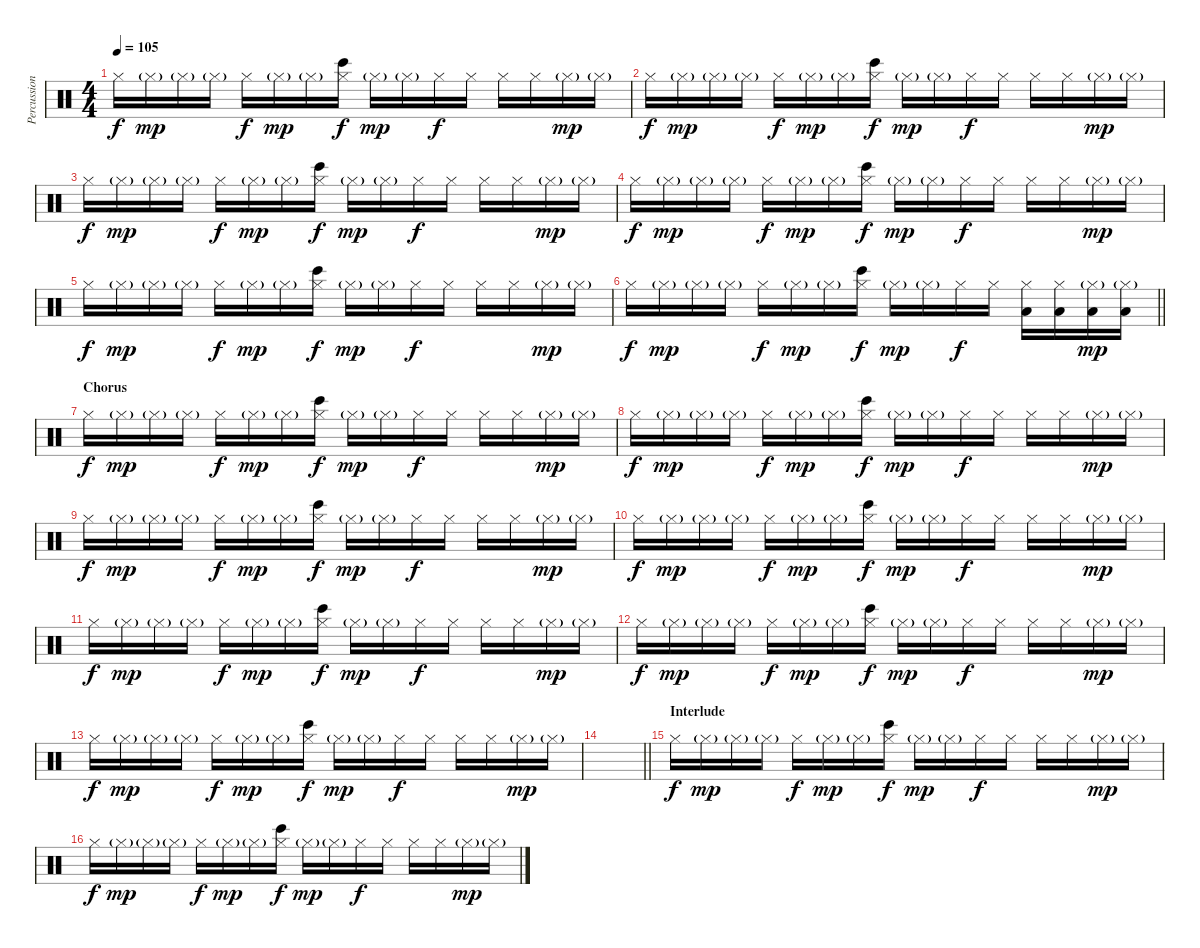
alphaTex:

\track ("Percussions and Arrangements" "Percussion") {instrument percussion}
\staff {score}
\articulation defaults
\ts (4 4)
\tempo 105
\clef neutral
\ks c "Hi-Hat (closed)".16{dy f} "Hi-Hat (closed)"{g}.16{dy mp} "Hi-Hat (closed)"{g}.16 "Hi-Hat (closed)"{g}.16 "Hi-Hat (closed)".16{dy f} "Hi-Hat (closed)"{g}.16{dy mp} "Hi-Hat (closed)"{g}.16
("Hi-Hat (closed)" "Bongo High (hit)").16{dy f} "Hi-Hat (closed)"{g}.16{dy mp} "Hi-Hat (closed)"{g}.16 "Hi-Hat (closed)".16{dy f} "Hi-Hat (closed)".16 "Hi-Hat (closed)".16 "Hi-Hat (closed)".16 "Hi-Hat (closed)"{g}.16{dy mp} "Hi-Hat (closed)"{g}.16 |
"Hi-Hat (closed)".16{dy f} "Hi-Hat (closed)"{g}.16{dy mp} "Hi-Hat (closed)"{g}.16 "Hi-Hat (closed)"{g}.16 "Hi-Hat (closed)".16{dy f} "Hi-Hat (closed)"{g}.16{dy mp} "Hi-Hat (closed)"{g}.16 ("Hi-Hat (closed)" "Bongo High (hit)").16{dy f} "Hi-Hat (closed)"{g}.16{dy mp} "Hi-Hat (closed)"{g}.16 "Hi-Hat (closed)".16{dy f} "Hi-Hat (closed)".16 "Hi-Hat (closed)".16 "Hi-Hat (closed)".16 "Hi-Hat (closed)"{g}.16{dy mp} "Hi-Hat (closed)"{g}.16 |
"Hi-Hat (closed)".16{dy f} "Hi-Hat (closed)"{g}.16{dy mp} "Hi-Hat (closed)"{g}.16 "Hi-Hat (closed)"{g}.16 "Hi-Hat (closed)".16{dy f} "Hi-Hat (closed)"{g}.16{dy mp} "Hi-Hat (closed)"{g}.16 ("Hi-Hat (closed)" "Bongo High (hit)").16{dy f} "Hi-Hat (closed)"{g}.16{dy mp} "Hi-Hat (closed)"{g}.16 "Hi-Hat (closed)".16{dy f} "Hi-Hat (closed)".16 "Hi-Hat (closed)".16 "Hi-Hat (closed)".16 "Hi-Hat (closed)"{g}.16{dy mp} "Hi-Hat (closed)"{g}.16 |
"Hi-Hat (closed)".16{dy f} "Hi-Hat (closed)"{g}.16{dy mp} "Hi-Hat (closed)"{g}.16 "Hi-Hat (closed)"{g}.16 "Hi-Hat (closed)".16{dy f} "Hi-Hat (closed)"{g}.16{dy mp} "Hi-Hat (closed)"{g}.16 ("Hi-Hat (closed)" "Bongo High (hit)").16{dy f} "Hi-Hat (closed)"{g}.16{dy mp} "Hi-Hat (closed)"{g}.16 "Hi-Hat (closed)".16{dy f} "Hi-Hat (closed)".16 "Hi-Hat (closed)".16 "Hi-Hat (closed)".16 "Hi-Hat (closed)"{g}.16{dy mp} "Hi-Hat (closed)"{g}.16 |
"Hi-Hat (closed)".16{dy f} "Hi-Hat (closed)"{g}.16{dy mp} "Hi-Hat (closed)"{g}.16 "Hi-Hat (closed)"{g}.16 "Hi-Hat (closed)".16{dy f} "Hi-Hat (closed)"{g}.16{dy mp} "Hi-Hat (closed)"{g}.16 ("Hi-Hat (closed)" "Bongo High (hit)").16{dy f} "Hi-Hat (closed)"{g}.16{dy mp} "Hi-Hat (closed)"{g}.16 "Hi-Hat (closed)".16{dy f} "Hi-Hat (closed)".16 "Hi-Hat (closed)".16 "Hi-Hat (closed)".16 "Hi-Hat (closed)"{g}.16{dy mp} "Hi-Hat (closed)"{g}.16 |
\barLineRight lightlight "Hi-Hat (closed)".16{dy f} "Hi-Hat (closed)"{g}.16{dy mp} "Hi-Hat (closed)"{g}.16 "Hi-Hat (closed)"{g}.16 "Hi-Hat (closed)".16{dy f} "Hi-Hat (closed)"{g}.16{dy mp} "Hi-Hat (closed)"{g}.16
("Hi-Hat (closed)" "Bongo High (hit)").16{dy f} "Hi-Hat (closed)"{g}.16{dy mp} "Hi-Hat (closed)"{g}.16 "Hi-Hat (closed)".16{dy f} "Hi-Hat (closed)".16 ("Hi-Hat (closed)" "Low Floor Tom (hit)").16 ("Hi-Hat (closed)" "Low Floor Tom (hit)").16 ("Hi-Hat (closed)"{g} "Low Floor Tom (hit)").16{dy mp} ("Hi-Hat (closed)"{g} "Low Floor Tom (hit)").16 |
\section ("" "Chorus")
"Hi-Hat (closed)".16{dy f} "Hi-Hat (closed)"{g}.16{dy mp} "Hi-Hat (closed)"{g}.16 "Hi-Hat (closed)"{g}.16 "Hi-Hat (closed)".16{dy f} "Hi-Hat (closed)"{g}.16{dy mp} "Hi-Hat (closed)"{g}.16 ("Hi-Hat (closed)" "Bongo High (hit)").16{dy f} "Hi-Hat (closed)"{g}.16{dy mp} "Hi-Hat (closed)"{g}.16 "Hi-Hat (closed)".16{dy f} "Hi-Hat (closed)".16 "Hi-Hat (closed)".16 "Hi-Hat (closed)".16 "Hi-Hat (closed)"{g}.16{dy mp} "Hi-Hat (closed)"{g}.16 |
"Hi-Hat (closed)".16{dy f} "Hi-Hat (closed)"{g}.16{dy mp} "Hi-Hat (closed)"{g}.16 "Hi-Hat (closed)"{g}.16 "Hi-Hat (closed)".16{dy f} "Hi-Hat (closed)"{g}.16{dy mp} "Hi-Hat (closed)"{g}.16 ("Hi-Hat (closed)" "Bongo High (hit)").16{dy f} "Hi-Hat (closed)"{g}.16{dy mp} "Hi-Hat (closed)"{g}.16 "Hi-Hat (closed)".16{dy f} "Hi-Hat (closed)".16 "Hi-Hat (closed)".16 "Hi-Hat (closed)".16 "Hi-Hat (closed)"{g}.16{dy mp} "Hi-Hat (closed)"{g}.16 |
"Hi-Hat (closed)".16{dy f} "Hi-Hat (closed)"{g}.16{dy mp} "Hi-Hat (closed)"{g}.16 "Hi-Hat (closed)"{g}.16 "Hi-Hat (closed)".16{dy f} "Hi-Hat (closed)"{g}.16{dy mp} "Hi-Hat (closed)"{g}.16 ("Hi-Hat (closed)" "Bongo High (hit)").16{dy f} "Hi-Hat (closed)"{g}.16{dy mp} "Hi-Hat (closed)"{g}.16 "Hi-Hat (closed)".16{dy f} "Hi-Hat (closed)".16 "Hi-Hat (closed)".16 "Hi-Hat (closed)".16 "Hi-Hat (closed)"{g}.16{dy mp} "Hi-Hat (closed)"{g}.16 |
"Hi-Hat (closed)".16{dy f} "Hi-Hat (closed)"{g}.16{dy mp} "Hi-Hat (closed)"{g}.16 "Hi-Hat (closed)"{g}.16 "Hi-Hat (closed)".16{dy f} "Hi-Hat (closed)"{g}.16{dy mp} "Hi-Hat (closed)"{g}.16 ("Hi-Hat (closed)" "Bongo High (hit)").16{dy f} "Hi-Hat (closed)"{g}.16{dy mp} "Hi-Hat (closed)"{g}.16 "Hi-Hat (closed)".16{dy f} "Hi-Hat (closed)".16 "Hi-Hat (closed)".16 "Hi-Hat (closed)".16 "Hi-Hat (closed)"{g}.16{dy mp} "Hi-Hat (closed)"{g}.16 |
"Hi-Hat (closed)".16{dy f} "Hi-Hat (closed)"{g}.16{dy mp} "Hi-Hat (closed)"{g}.16 "Hi-Hat (closed)"{g}.16 "Hi-Hat (closed)".16{dy f} "Hi-Hat (closed)"{g}.16{dy mp} "Hi-Hat (closed)"{g}.16 ("Hi-Hat (closed)" "Bongo High (hit)").16{dy f} "Hi-Hat (closed)"{g}.16{dy mp} "Hi-Hat (closed)"{g}.16 "Hi-Hat (closed)".16{dy f} "Hi-Hat (closed)".16 "Hi-Hat (closed)".16 "Hi-Hat (closed)".16 "Hi-Hat (closed)"{g}.16{dy mp} "Hi-Hat (closed)"{g}.16 |
"Hi-Hat (closed)".16{dy f} "Hi-Hat (closed)"{g}.16{dy mp} "Hi-Hat (closed)"{g}.16 "Hi-Hat (closed)"{g}.16 "Hi-Hat (closed)".16{dy f} "Hi-Hat (closed)"{g}.16{dy mp} "Hi-Hat (closed)"{g}.16 ("Hi-Hat (closed)" "Bongo High (hit)").16{dy f} "Hi-Hat (closed)"{g}.16{dy mp} "Hi-Hat (closed)"{g}.16 "Hi-Hat (closed)".16{dy f} "Hi-Hat (closed)".16 "Hi-Hat (closed)".16 "Hi-Hat (closed)".16 "Hi-Hat (closed)"{g}.16{dy mp} "Hi-Hat (closed)"{g}.16 |
"Hi-Hat (closed)".16{dy f} "Hi-Hat (closed)"{g}.16{dy mp} "Hi-Hat (closed)"{g}.16 "Hi-Hat (closed)"{g}.16 "Hi-Hat (closed)".16{dy f} "Hi-Hat (closed)"{g}.16{dy mp} "Hi-Hat (closed)"{g}.16 ("Hi-Hat (closed)" "Bongo High (hit)").16{dy f} "Hi-Hat (closed)"{g}.16{dy mp} "Hi-Hat (closed)"{g}.16 "Hi-Hat (closed)".16{dy f} "Hi-Hat (closed)".16 "Hi-Hat (closed)".16 "Hi-Hat (closed)".16 "Hi-Hat (closed)"{g}.16{dy mp} "Hi-Hat (closed)"{g}.16 |
\barLineRight lightlight
|
\section ("" "Interlude")
"Hi-Hat (closed)".16{dy f} "Hi-Hat (closed)"{g}.16{dy mp} "Hi-Hat (closed)"{g}.16 "Hi-Hat (closed)"{g}.16 "Hi-Hat (closed)".16{dy f} "Hi-Hat (closed)"{g}.16{dy mp} "Hi-Hat (closed)"{g}.16 ("Hi-Hat (closed)" "Bongo High (hit)").16{dy f} "Hi-Hat (closed)"{g}.16{dy mp} "Hi-Hat (closed)"{g}.16 "Hi-Hat (closed)".16{dy f} "Hi-Hat (closed)".16 "Hi-Hat (closed)".16 "Hi-Hat (closed)".16 "Hi-Hat (closed)"{g}.16{dy mp} "Hi-Hat (closed)"{g}.16 |
"Hi-Hat (closed)".16{dy f} "Hi-Hat (closed)"{g}.16{dy mp} "Hi-Hat (closed)"{g}.16 "Hi-Hat (closed)"{g}.16 "Hi-Hat (closed)".16{dy f} "Hi-Hat (closed)"{g}.16{dy mp} "Hi-Hat (closed)"{g}.16 ("Hi-Hat (closed)" "Bongo High (hit)").16{dy f} "Hi-Hat (closed)"{g}.16{dy mp} "Hi-Hat (closed)"{g}.16 "Hi-Hat (closed)".16{dy f} "Hi-Hat (closed)".16 "Hi-Hat (closed)".16 "Hi-Hat (closed)".16 "Hi-Hat (closed)"{g}.16{dy mp} "Hi-Hat (closed)"{g}.16
